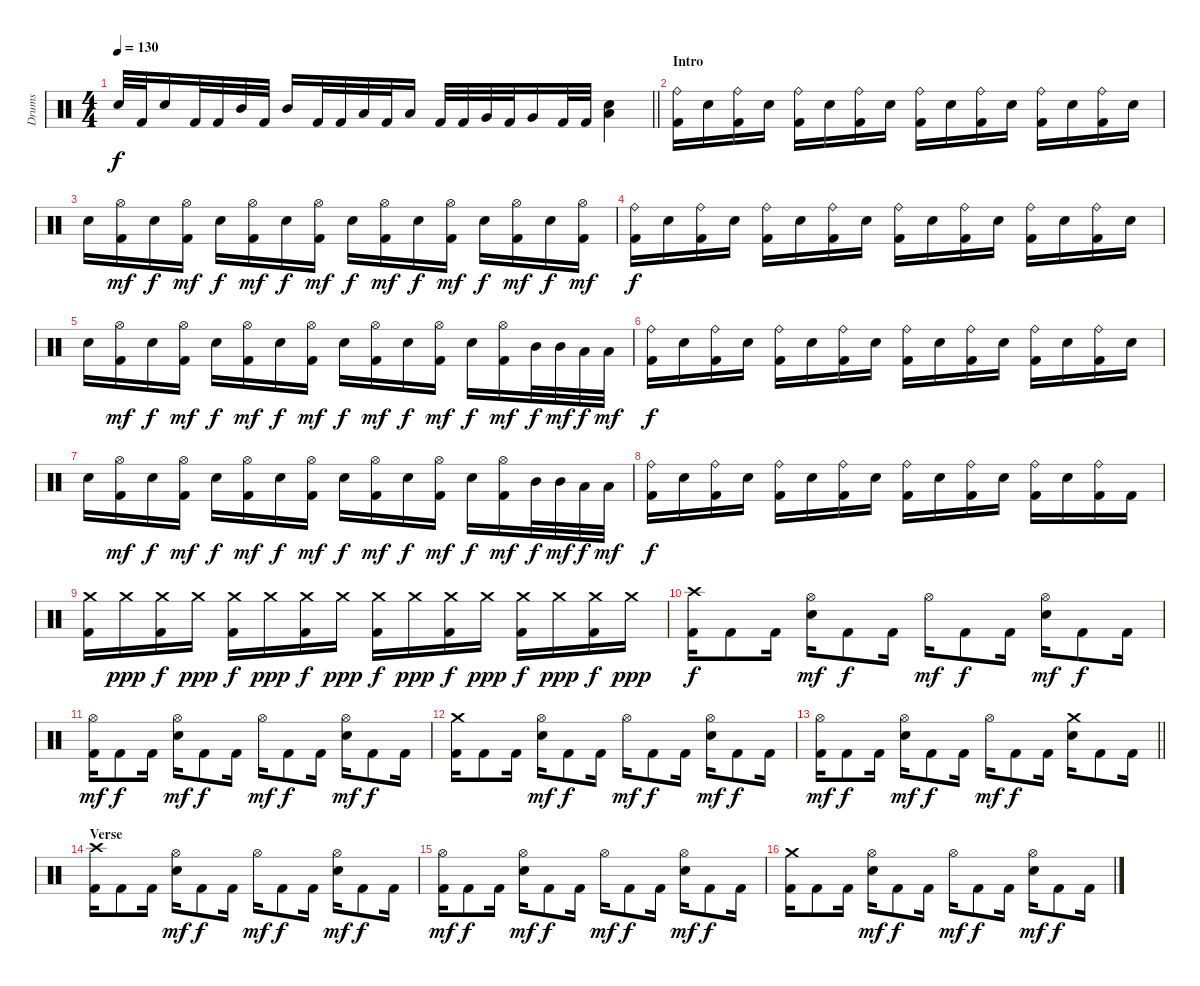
\track ("Drums" "Drums") {instrument percussion}
\staff {score}
\articulation defaults
\ts (4 4)
\tempo 130
\clef neutral
\barLineRight lightlight
\ks c "Electric Snare (hit)".32{dy f} "Kick (hit) 2".32 "Electric Snare (hit)".16 "Kick (hit) 2".32 "Kick (hit) 2".32 "Mid Tom (hit)".32 "Kick (hit) 2".32 "Mid Tom (hit)".16 "Kick (hit) 2".32 "Kick (hit) 2".32 "Low Tom (hit)".32 "Kick (hit) 2".32 "Low Tom (hit)".16 "Kick (hit) 2".32 "Kick (hit) 2".32 "Very Low Tom (hit)".32 "Kick (hit) 2".32 "Very Low Tom (hit)".16 "Kick (hit) 2".32 "Kick (hit) 2".32
("Low Floor Tom (hit)" "Electric Snare (hit)").4 |
\section ("" "Intro")
("Kick (hit) 2" "Ride (bell)").16 "Electric Snare (hit)".16 ("Kick (hit) 2" "Ride (bell)").16 "Electric Snare (hit)".16 ("Kick (hit) 2" "Ride (bell)").16 "Electric Snare (hit)".16 ("Kick (hit) 2" "Ride (bell)").16 "Electric Snare (hit)".16 ("Kick (hit) 2" "Ride (bell)").16 "Electric Snare (hit)".16 ("Kick (hit) 2" "Ride (bell)").16 "Electric Snare (hit)".16 ("Kick (hit) 2" "Ride (bell)").16 "Electric Snare (hit)".16 ("Kick (hit) 2" "Ride (bell)").16 "Electric Snare (hit)".16 |
"Electric Snare (hit)".16 ("Kick (hit) 2" "Hi-Hat (open)").16{dy mf} "Electric Snare (hit)".16{dy f} ("Kick (hit) 2" "Hi-Hat (open)").16{dy mf} "Electric Snare (hit)".16{dy f} ("Kick (hit) 2" "Hi-Hat (open)").16{dy mf} "Electric Snare (hit)".16{dy f} ("Kick (hit) 2" "Hi-Hat (open)").16{dy mf} "Electric Snare (hit)".16{dy f} ("Kick (hit) 2" "Hi-Hat (open)").16{dy mf} "Electric Snare (hit)".16{dy f} ("Kick (hit) 2" "Hi-Hat (open)").16{dy mf} "Electric Snare (hit)".16{dy f} ("Kick (hit) 2" "Hi-Hat (open)").16{dy mf} "Electric Snare (hit)".16{dy f} ("Kick (hit) 2" "Hi-Hat (open)").16{dy mf} |
("Kick (hit) 2" "Ride (bell)").16{dy f} "Electric Snare (hit)".16 ("Kick (hit) 2" "Ride (bell)").16 "Electric Snare (hit)".16 ("Kick (hit) 2" "Ride (bell)").16 "Electric Snare (hit)".16 ("Kick (hit) 2" "Ride (bell)").16 "Electric Snare (hit)".16 ("Kick (hit) 2" "Ride (bell)").16 "Electric Snare (hit)".16 ("Kick (hit) 2" "Ride (bell)").16 "Electric Snare (hit)".16 ("Kick (hit) 2" "Ride (bell)").16 "Electric Snare (hit)".16 ("Kick (hit) 2" "Ride (bell)").16 "Electric Snare (hit)".16 |
"Electric Snare (hit)".16 ("Kick (hit) 2" "Hi-Hat (open)").16{dy mf} "Electric Snare (hit)".16{dy f} ("Kick (hit) 2" "Hi-Hat (open)").16{dy mf} "Electric Snare (hit)".16{dy f} ("Kick (hit) 2" "Hi-Hat (open)").16{dy mf} "Electric Snare (hit)".16{dy f} ("Kick (hit) 2" "Hi-Hat (open)").16{dy mf} "Electric Snare (hit)".16{dy f} ("Kick (hit) 2" "Hi-Hat (open)").16{dy mf} "Electric Snare (hit)".16{dy f} ("Kick (hit) 2" "Hi-Hat (open)").16{dy mf} "Electric Snare (hit)".16{dy f} ("Kick (hit) 2" "Hi-Hat (open)").16{dy mf} "Mid Tom (hit)".32{dy f} "Mid Tom (hit)".32{dy mf} "Low Tom (hit)".32{dy f} "Low Tom (hit)".32{dy mf} |
("Kick (hit) 2" "Ride (bell)").16{dy f} "Electric Snare (hit)".16 ("Kick (hit) 2" "Ride (bell)").16 "Electric Snare (hit)".16 ("Kick (hit) 2" "Ride (bell)").16 "Electric Snare (hit)".16 ("Kick (hit) 2" "Ride (bell)").16 "Electric Snare (hit)".16 ("Kick (hit) 2" "Ride (bell)").16 "Electric Snare (hit)".16 ("Kick (hit) 2" "Ride (bell)").16 "Electric Snare (hit)".16 ("Kick (hit) 2" "Ride (bell)").16 "Electric Snare (hit)".16 ("Kick (hit) 2" "Ride (bell)").16 "Electric Snare (hit)".16 |
"Electric Snare (hit)".16 ("Kick (hit) 2" "Hi-Hat (open)").16{dy mf} "Electric Snare (hit)".16{dy f} ("Kick (hit) 2" "Hi-Hat (open)").16{dy mf} "Electric Snare (hit)".16{dy f} ("Kick (hit) 2" "Hi-Hat (open)").16{dy mf} "Electric Snare (hit)".16{dy f} ("Kick (hit) 2" "Hi-Hat (open)").16{dy mf} "Electric Snare (hit)".16{dy f} ("Kick (hit) 2" "Hi-Hat (open)").16{dy mf} "Electric Snare (hit)".16{dy f} ("Kick (hit) 2" "Hi-Hat (open)").16{dy mf} "Electric Snare (hit)".16{dy f} ("Kick (hit) 2" "Hi-Hat (open)").16{dy mf} "Mid Tom (hit)".32{dy f} "Mid Tom (hit)".32{dy mf} "Low Tom (hit)".32{dy f} "Low Tom (hit)".32{dy mf} |
("Kick (hit) 2" "Ride (bell)").16{dy f} "Electric Snare (hit)".16 ("Kick (hit) 2" "Ride (bell)").16 "Electric Snare (hit)".16 ("Kick (hit) 2" "Ride (bell)").16 "Electric Snare (hit)".16 ("Kick (hit) 2" "Ride (bell)").16 "Electric Snare (hit)".16 ("Kick (hit) 2" "Ride (bell)").16 "Electric Snare (hit)".16 ("Kick (hit) 2" "Ride (bell)").16 "Electric Snare (hit)".16 ("Kick (hit) 2" "Ride (bell)").16 "Electric Snare (hit)".16 ("Kick (hit) 2" "Ride (bell)").16 "Kick (hit) 2".16 |
("Kick (hit) 2" "Crash medium (hit)").16 "Crash medium (hit)".16{dy ppp} ("Kick (hit) 2" "Crash medium (hit)").16{dy f} "Crash medium (hit)".16{dy ppp} ("Kick (hit) 2" "Crash medium (hit)").16{dy f} "Crash medium (hit)".16{dy ppp} ("Kick (hit) 2" "Crash medium (hit)").16{dy f} "Crash medium (hit)".16{dy ppp} ("Kick (hit) 2" "Crash medium (hit)").16{dy f} "Crash medium (hit)".16{dy ppp} ("Kick (hit) 2" "Crash medium (hit)").16{dy f} "Crash medium (hit)".16{dy ppp} ("Kick (hit) 2" "Crash medium (hit)").16{dy f} "Crash medium (hit)".16{dy ppp} ("Kick (hit) 2" "Crash medium (hit)").16{dy f} "Crash medium (hit)".16{dy ppp} |
("Kick (hit) 2" "Crash high (hit)").16{dy f} "Kick (hit) 2".8 "Kick (hit) 2".16 ("Hi-Hat (open)" "Electric Snare (hit)").16{dy mf} "Kick (hit) 2".8{dy f} "Kick (hit) 2".16 "Hi-Hat (open)".16{dy mf} "Kick (hit) 2".8{dy f} "Kick (hit) 2".16 ("Hi-Hat (open)" "Electric Snare (hit)").16{dy mf} "Kick (hit) 2".8{dy f} "Kick (hit) 2".16 |
("Kick (hit) 2" "Hi-Hat (open)").16{dy mf} "Kick (hit) 2".8{dy f} "Kick (hit) 2".16 ("Hi-Hat (open)" "Electric Snare (hit)").16{dy mf} "Kick (hit) 2".8{dy f} "Kick (hit) 2".16 "Hi-Hat (open)".16{dy mf} "Kick (hit) 2".8{dy f} "Kick (hit) 2".16 ("Hi-Hat (open)" "Electric Snare (hit)").16{dy mf} "Kick (hit) 2".8{dy f} "Kick (hit) 2".16 |
("Kick (hit) 2" "Crash medium (hit)").16 "Kick (hit) 2".8 "Kick (hit) 2".16 ("Hi-Hat (open)" "Electric Snare (hit)").16{dy mf} "Kick (hit) 2".8{dy f} "Kick (hit) 2".16 "Hi-Hat (open)".16{dy mf} "Kick (hit) 2".8{dy f} "Kick (hit) 2".16 ("Hi-Hat (open)" "Electric Snare (hit)").16{dy mf} "Kick (hit) 2".8{dy f} "Kick (hit) 2".16 |
\barLineRight lightlight
("Kick (hit) 2" "Hi-Hat (open)").16{dy mf} "Kick (hit) 2".8{dy f} "Kick (hit) 2".16 ("Hi-Hat (open)" "Electric Snare (hit)").16{dy mf} "Kick (hit) 2".8{dy f} "Kick (hit) 2".16 "Hi-Hat (open)".16{dy mf} "Kick (hit) 2".8{dy f} "Kick (hit) 2".16 ("Crash medium (hit)" "Electric Snare (hit)").16 "Kick (hit) 2".8 "Kick (hit) 2".16 |
\section ("" "Verse")
("Kick (hit) 2" "Crash high (hit)").16 "Kick (hit) 2".8 "Kick (hit) 2".16 ("Hi-Hat (open)" "Electric Snare (hit)").16{dy mf} "Kick (hit) 2".8{dy f} "Kick (hit) 2".16 "Hi-Hat (open)".16{dy mf} "Kick (hit) 2".8{dy f} "Kick (hit) 2".16 ("Hi-Hat (open)" "Electric Snare (hit)").16{dy mf} "Kick (hit) 2".8{dy f} "Kick (hit) 2".16 |
("Kick (hit) 2" "Hi-Hat (open)").16{dy mf} "Kick (hit) 2".8{dy f} "Kick (hit) 2".16 ("Hi-Hat (open)" "Electric Snare (hit)").16{dy mf} "Kick (hit) 2".8{dy f} "Kick (hit) 2".16 "Hi-Hat (open)".16{dy mf} "Kick (hit) 2".8{dy f} "Kick (hit) 2".16 ("Hi-Hat (open)" "Electric Snare (hit)").16{dy mf} "Kick (hit) 2".8{dy f} "Kick (hit) 2".16 |
("Kick (hit) 2" "Crash medium (hit)").16 "Kick (hit) 2".8 "Kick (hit) 2".16 ("Hi-Hat (open)" "Electric Snare (hit)").16{dy mf} "Kick (hit) 2".8{dy f} "Kick (hit) 2".16 "Hi-Hat (open)".16{dy mf} "Kick (hit) 2".8{dy f} "Kick (hit) 2".16 ("Hi-Hat (open)" "Electric Snare (hit)").16{dy mf} "Kick (hit) 2".8{dy f} "Kick (hit) 2".16
